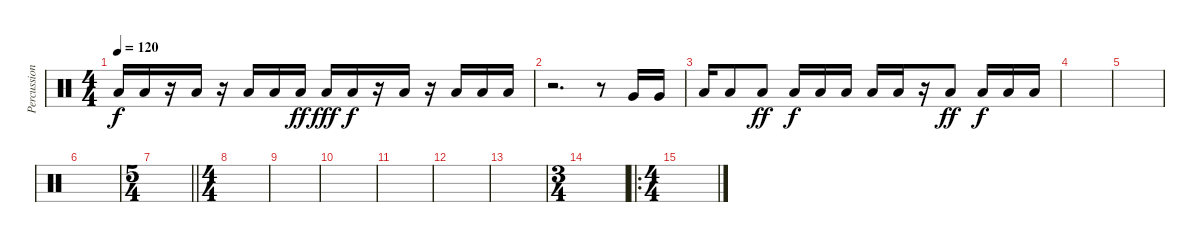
\track ("Percussion" "Percussion") {instrument percussion}
\staff {score}
\articulation defaults
\ts (4 4)
\tempo 120
\clef neutral
\ks c "Low Tom (hit)".16{dy f} "Low Tom (hit)".16
r.16 "Low Tom (hit)".16 r.16 "Low Tom (hit)".16 "Low Tom (hit)".16 "Low Tom (hit)".16{dy ff} "Low Tom (hit)".16{dy fff} "Low Tom (hit)".16{dy f} r.16 "Low Tom (hit)".16 r.16 "Low Tom (hit)".16 "Low Tom (hit)".16 "Low Tom (hit)".16 |
r.2{d} r.8 "Very Low Tom (hit)".16 "Very Low Tom (hit)".16 |
"Low Tom (hit)".16 "Low Tom (hit)".8 "Low Tom (hit)".8{dy ff} "Low Tom (hit)".16{dy f} "Low Tom (hit)".16 "Low Tom (hit)".16 "Low Tom (hit)".16 "Low Tom (hit)".16 r.16 "Low Tom (hit)".8{dy ff} "Low Tom (hit)".16{dy f} "Low Tom (hit)".16 "Low Tom (hit)".16 |
|
|
|
\ts (5 4)
\barLineRight lightlight
|
\ts (4 4)
\section ("" "")
|
|
|
|
|
|
\ts (3 4)
|
\ro
\ts (4 4)
